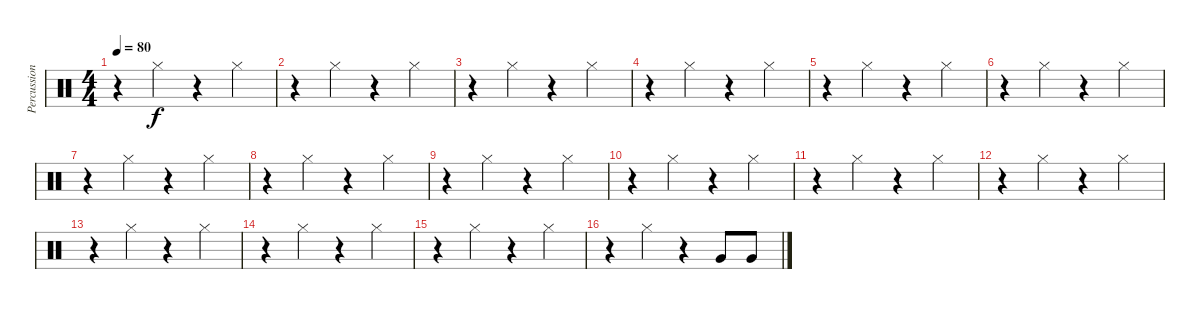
\track ("Percussions" "Percussion") {instrument percussion}
\staff {score}
\articulation defaults
\ts (4 4)
\tempo 80
\clef neutral
\ks c
r.4{dy f} "Hi-Hat (closed)".4 r.4 "Hi-Hat (closed)".4 |
r.4 "Hi-Hat (closed)".4 r.4 "Hi-Hat (closed)".4 |
r.4 "Hi-Hat (closed)".4 r.4 "Hi-Hat (closed)".4 |
r.4 "Hi-Hat (closed)".4 r.4 "Hi-Hat (closed)".4 |
r.4 "Hi-Hat (closed)".4 r.4 "Hi-Hat (closed)".4 |
r.4 "Hi-Hat (closed)".4 r.4 "Hi-Hat (closed)".4 |
r.4 "Hi-Hat (closed)".4 r.4 "Hi-Hat (closed)".4 |
r.4 "Hi-Hat (closed)".4 r.4 "Hi-Hat (closed)".4 |
r.4 "Hi-Hat (closed)".4 r.4 "Hi-Hat (closed)".4 |
r.4 "Hi-Hat (closed)".4 r.4 "Hi-Hat (closed)".4 |
r.4 "Hi-Hat (closed)".4 r.4 "Hi-Hat (closed)".4 |
r.4 "Hi-Hat (closed)".4 r.4 "Hi-Hat (closed)".4 |
r.4 "Hi-Hat (closed)".4 r.4 "Hi-Hat (closed)".4 |
r.4 "Hi-Hat (closed)".4 r.4 "Hi-Hat (closed)".4 |
r.4 "Hi-Hat (closed)".4 r.4 "Hi-Hat (closed)".4 |
r.4 "Hi-Hat (closed)".4 r.4 "Very Low Tom (hit)".8 "Very Low Tom (hit)".8
